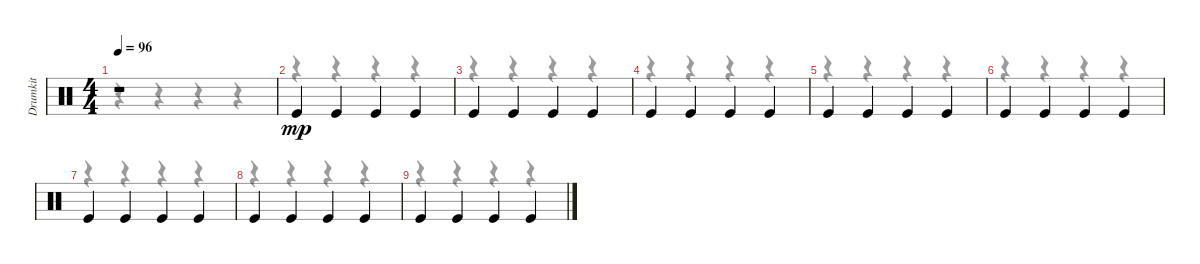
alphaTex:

\track ("Drumkit" "Drumkit") {instrument percussion}
\staff {score}
\articulation defaults
\voice
\ts (4 4)
\tempo 96
\clef neutral
\ks c
r.1{dy mp} |
"Kick (hit)".4 "Kick (hit)".4 "Kick (hit)".4 "Kick (hit)".4 |
"Kick (hit)".4 "Kick (hit)".4 "Kick (hit)".4 "Kick (hit)".4 |
"Kick (hit)".4 "Kick (hit)".4 "Kick (hit)".4 "Kick (hit)".4 |
"Kick (hit)".4 "Kick (hit)".4 "Kick (hit)".4 "Kick (hit)".4 |
"Kick (hit)".4 "Kick (hit)".4 "Kick (hit)".4 "Kick (hit)".4 |
"Kick (hit)".4 "Kick (hit)".4 "Kick (hit)".4 "Kick (hit)".4 |
"Kick (hit)".4 "Kick (hit)".4 "Kick (hit)".4 "Kick (hit)".4 |
"Kick (hit)".4 "Kick (hit)".4 "Kick (hit)".4 "Kick (hit)".4
\voice
\clef neutral
\ottava regular
\simile none
\ks c
r.4{dy f} r.4 r.4 r.4 |
r.4 r.4 r.4 r.4 |
r.4 r.4 r.4 r.4 |
r.4 r.4 r.4 r.4 |
r.4 r.4 r.4 r.4 |
r.4 r.4 r.4 r.4 |
r.4 r.4 r.4 r.4 |
r.4 r.4 r.4 r.4 |
r.4 r.4 r.4 r.4
